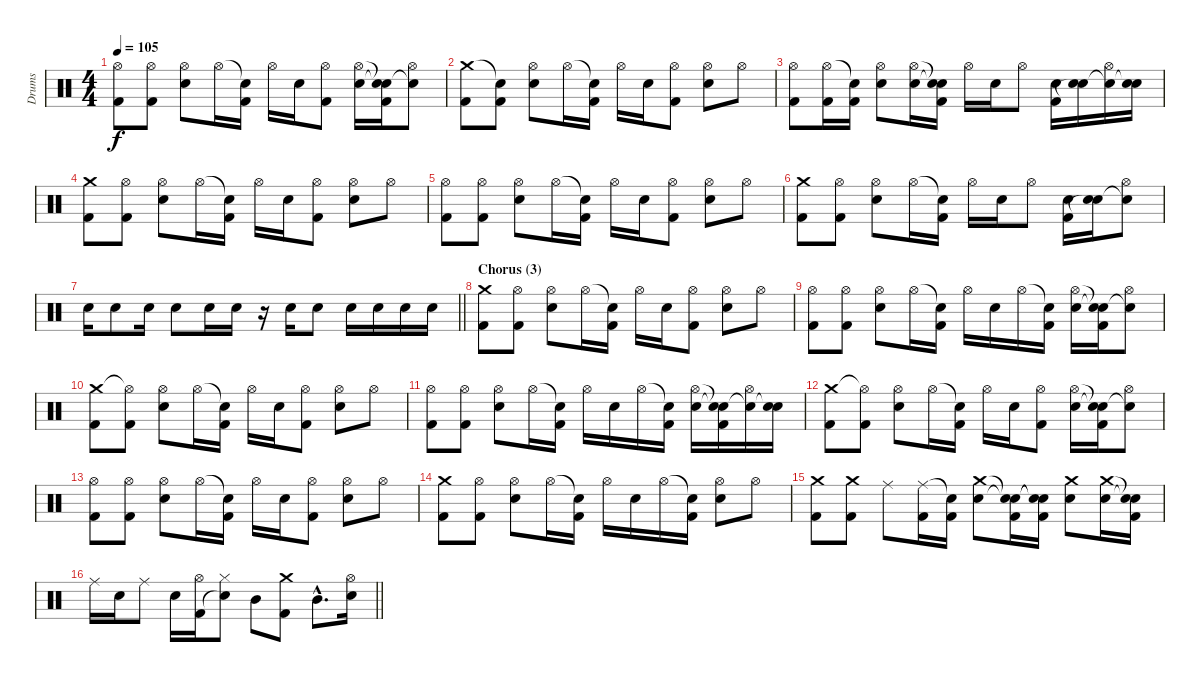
\track ("Drums" "Drums") {instrument percussion}
\staff {score}
\articulation defaults
\ts (4 4)
\tempo 105
\clef neutral
\ks aminor
("Hi-Hat (open)" "Kick (hit) 2").8{dy f} ("Hi-Hat (open)" "Kick (hit) 2").8 ("Hi-Hat (open)" "Electric Snare (hit)").8 "Hi-Hat (open)".16 ("Snare (hit)"{t} "Kick (hit) 2").16 "Hi-Hat (open)".16 "Electric Snare (hit)".16 ("Hi-Hat (open)" "Kick (hit) 2").8 ("Hi-Hat (open)" "Electric Snare (hit)").16 ("Snare (hit)"{t} "Snare (hit)"{t} "Kick (hit) 2").16 ("Hi-Hat (open)" "Snare (hit)"{t}).8 |
("Crash medium (hit)" "Kick (hit) 2").8 ("Snare (hit)"{t} "Kick (hit) 2").8 ("Hi-Hat (open)" "Electric Snare (hit)").8 "Hi-Hat (open)".16 ("Snare (hit)"{t} "Kick (hit) 2").16 "Hi-Hat (open)".16 "Electric Snare (hit)".16 ("Hi-Hat (open)" "Kick (hit) 2").8 ("Hi-Hat (open)" "Electric Snare (hit)").8 "Hi-Hat (open)".8 |
("Hi-Hat (open)" "Kick (hit) 2").8 ("Hi-Hat (open)" "Kick (hit) 2").16 ("Snare (hit)"{t} "Kick (hit) 2").16 ("Hi-Hat (open)" "Electric Snare (hit)").8 ("Hi-Hat (open)" "Electric Snare (hit)").16 ("Snare (hit)"{t} "Snare (hit)"{t} "Kick (hit) 2").16 "Hi-Hat (open)".16 "Electric Snare (hit)".16 "Hi-Hat (open)".8 ("Electric Snare (hit)" "Kick (hit) 2").16 ("Electric Snare (hit)" "Snare (hit)"{t}).16 ("Hi-Hat (open)" "Snare (hit)"{t}).16 ("Electric Snare (hit)" "Snare (hit)"{t}).16 |
("Crash medium (hit)" "Kick (hit) 2").8 ("Hi-Hat (open)" "Kick (hit) 2").8 ("Hi-Hat (open)" "Electric Snare (hit)").8 "Hi-Hat (open)".16 ("Snare (hit)"{t} "Kick (hit) 2").16 "Hi-Hat (open)".16 "Electric Snare (hit)".16 ("Hi-Hat (open)" "Kick (hit) 2").8 ("Hi-Hat (open)" "Electric Snare (hit)").8 "Hi-Hat (open)".8 |
("Hi-Hat (open)" "Kick (hit) 2").8 ("Hi-Hat (open)" "Kick (hit) 2").8 ("Hi-Hat (open)" "Electric Snare (hit)").8 "Hi-Hat (open)".16 ("Snare (hit)"{t} "Kick (hit) 2").16 "Hi-Hat (open)".16 "Electric Snare (hit)".16 ("Hi-Hat (open)" "Kick (hit) 2").8 ("Hi-Hat (open)" "Electric Snare (hit)").8 "Hi-Hat (open)".8 |
("Crash medium (hit)" "Kick (hit) 2").8 ("Hi-Hat (open)" "Kick (hit) 2").8 ("Hi-Hat (open)" "Electric Snare (hit)").8 "Hi-Hat (open)".16 ("Snare (hit)"{t} "Kick (hit) 2").16 "Hi-Hat (open)".16 "Electric Snare (hit)".16 "Hi-Hat (open)".8 ("Electric Snare (hit)" "Kick (hit) 2").16 ("Electric Snare (hit)" "Snare (hit)"{t}).16 ("Hi-Hat (open)" "Snare (hit)"{t}).8 |
\barLineRight lightlight "Electric Snare (hit)".16 "Electric Snare (hit)".8 "Electric Snare (hit)".16 "Electric Snare (hit)".8 "Electric Snare (hit)".16 "Electric Snare (hit)".16
r.16 "Electric Snare (hit)".16 "Electric Snare (hit)".8 "Electric Snare (hit)".16 "Electric Snare (hit)".16 "Electric Snare (hit)".16 "Electric Snare (hit)".16 |
\section ("" "Chorus (3)")
("Crash medium (hit)" "Kick (hit) 2").8 ("Hi-Hat (open)" "Kick (hit) 2").8 ("Hi-Hat (open)" "Electric Snare (hit)").8 "Hi-Hat (open)".16 ("Snare (hit)"{t} "Kick (hit) 2").16 "Hi-Hat (open)".16 "Electric Snare (hit)".16 ("Hi-Hat (open)" "Kick (hit) 2").8 ("Hi-Hat (open)" "Electric Snare (hit)").8 "Hi-Hat (open)".8 |
("Hi-Hat (open)" "Kick (hit) 2").8 ("Hi-Hat (open)" "Kick (hit) 2").8 ("Hi-Hat (open)" "Electric Snare (hit)").8 "Hi-Hat (open)".16 ("Snare (hit)"{t} "Kick (hit) 2").16 "Hi-Hat (open)".16 "Electric Snare (hit)".16 "Hi-Hat (open)".16 ("Snare (hit)"{t} "Kick (hit) 2").16 ("Hi-Hat (open)" "Electric Snare (hit)").16 ("Snare (hit)"{t} "Snare (hit)"{t} "Kick (hit) 2").16 ("Hi-Hat (open)" "Snare (hit)"{t}).8 |
("Crash medium (hit)" "Kick (hit) 2").8 ("Hi-Hat (open)"{t} "Kick (hit) 2").8 ("Hi-Hat (open)" "Electric Snare (hit)").8 "Hi-Hat (open)".16 ("Snare (hit)"{t} "Kick (hit) 2").16 "Hi-Hat (open)".16 "Electric Snare (hit)".16 ("Hi-Hat (open)" "Kick (hit) 2").8 ("Hi-Hat (open)" "Electric Snare (hit)").8 "Hi-Hat (open)".8 |
("Hi-Hat (open)" "Kick (hit) 2").8 ("Hi-Hat (open)" "Kick (hit) 2").8 ("Hi-Hat (open)" "Electric Snare (hit)").8 "Hi-Hat (open)".16 ("Snare (hit)"{t} "Kick (hit) 2").16 "Hi-Hat (open)".16 "Electric Snare (hit)".16 "Hi-Hat (open)".16 ("Snare (hit)"{t} "Kick (hit) 2").16 ("Hi-Hat (open)" "Electric Snare (hit)").16 ("Snare (hit)"{t} "Snare (hit)"{t} "Kick (hit) 2").16 ("Hi-Hat (open)" "Snare (hit)"{t}).16 ("Electric Snare (hit)" "Snare (hit)"{t}).16 |
("Crash medium (hit)" "Kick (hit) 2").8 ("Hi-Hat (open)"{t} "Kick (hit) 2").8 ("Hi-Hat (open)" "Electric Snare (hit)").8 "Hi-Hat (open)".16 ("Snare (hit)"{t} "Kick (hit) 2").16 "Hi-Hat (open)".16 "Electric Snare (hit)".16 ("Hi-Hat (open)" "Kick (hit) 2").8 ("Hi-Hat (open)" "Electric Snare (hit)").16 ("Snare (hit)"{t} "Snare (hit)"{t} "Kick (hit) 2").16 ("Hi-Hat (open)" "Snare (hit)"{t}).8 |
("Hi-Hat (open)" "Kick (hit) 2").8 ("Hi-Hat (open)" "Kick (hit) 2").8 ("Hi-Hat (open)" "Electric Snare (hit)").8 "Hi-Hat (open)".16 ("Snare (hit)"{t} "Kick (hit) 2").16 "Hi-Hat (open)".16 "Electric Snare (hit)".16 ("Hi-Hat (open)" "Kick (hit) 2").8 ("Hi-Hat (open)" "Electric Snare (hit)").8 "Hi-Hat (open)".8 |
("Crash medium (hit)" "Kick (hit) 2").8 ("Hi-Hat (open)" "Kick (hit) 2").8 ("Hi-Hat (open)" "Electric Snare (hit)").8 "Hi-Hat (open)".16 ("Snare (hit)"{t} "Kick (hit) 2").16 "Hi-Hat (open)".16 "Electric Snare (hit)".16 "Hi-Hat (open)".16 ("Snare (hit)"{t} "Kick (hit) 2").16 ("Hi-Hat (open)" "Electric Snare (hit)").8 "Hi-Hat (open)".8 |
("Crash medium (hit)" "Kick (hit) 2").8 ("Crash medium (hit)" "Kick (hit) 2").8 "Ride (middle)".8 ("Ride (middle)" "Kick (hit) 2").16 ("Snare (hit)"{t} "Kick (hit) 2").16 ("Crash medium (hit)" "Electric Snare (hit)").8 ("Snare (hit)"{t} "Snare (hit)"{t} "Kick (hit) 2").16 ("Snare (hit)"{t} "Snare (hit)"{t} "Kick (hit) 2").16 ("Crash medium (hit)" "Electric Snare (hit)").8 ("Crash medium (hit)" "Electric Snare (hit)").16 ("Snare (hit)"{t} "Snare (hit)"{t} "Kick (hit) 2").16 |
\barLineRight lightlight "Ride (middle)".16 "Electric Snare (hit)".16 "Ride (middle)".8 "Electric Snare (hit)".16
("Hi-Hat (open)" "Kick (hit) 2").16 ("Hi-Hat (closed)" "Snare (hit)"{t}).8 "Mid Tom (hit)".8 ("Crash medium (hit)" "Kick (hit) 2").8 "Mid Tom (hit)"{hac}.8{d} ("Hi-Hat (open)" "Electric Snare (hit)").16
